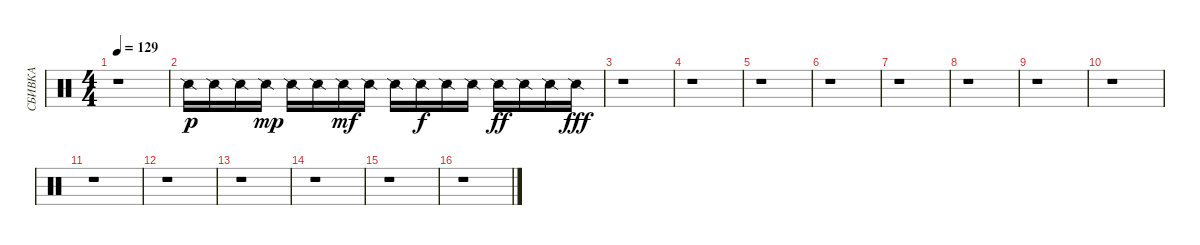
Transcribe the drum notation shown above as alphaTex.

\track ("СБИВКА" "СБИВКА") {instrument percussion}
\staff {score}
\articulation defaults
\ts (4 4)
\tempo 129
\clef neutral
\ks c
r.1{dy fff} |
"Snare (side stick) 2".16{dy p} "Snare (side stick) 2".16 "Snare (side stick) 2".16 "Snare (side stick) 2".16{dy mp} "Snare (side stick) 2".16 "Snare (side stick) 2".16 "Snare (side stick) 2".16{dy mf} "Snare (side stick) 2".16 "Snare (side stick) 2".16 "Snare (side stick) 2".16{dy f} "Snare (side stick) 2".16 "Snare (side stick) 2".16 "Snare (side stick) 2".16{dy ff} "Snare (side stick) 2".16 "Snare (side stick) 2".16 "Snare (side stick) 2".16{dy fff} |
r.1 |
r.1 |
r.1 |
r.1 |
r.1 |
r.1 |
r.1 |
r.1 |
r.1 |
r.1 |
r.1 |
r.1 |
r.1 |
r.1
